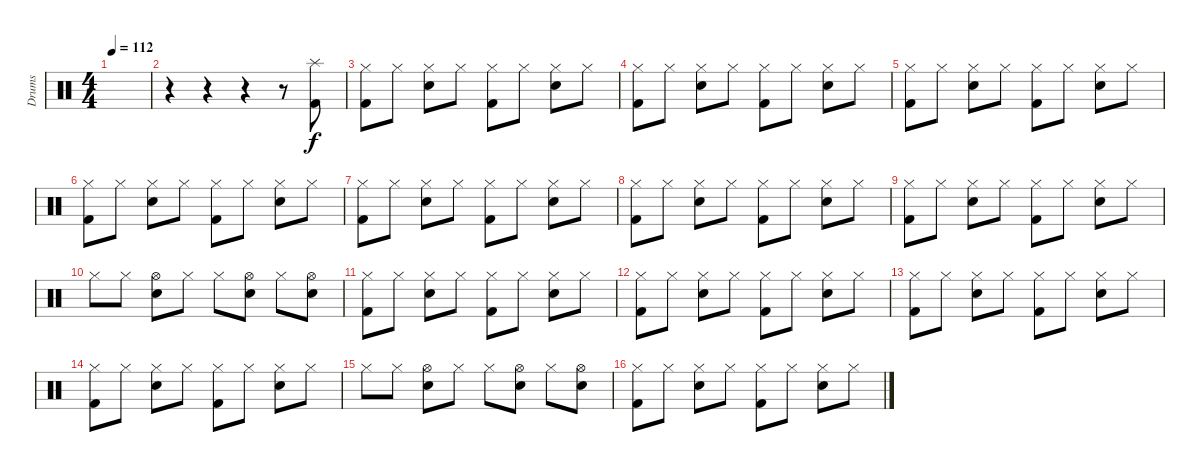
\track ("Drums" "Drums") {instrument percussion}
\staff {score}
\articulation defaults
\ts (4 4)
\tempo 112
\clef neutral
\ks c
|
r.4 r.4 r.4 r.8 ("Kick (hit) 2" "Splash (hit)").8 |
("Kick (hit) 2" "Hi-Hat (closed)").8 "Hi-Hat (closed)".8 ("Snare (hit) 2" "Hi-Hat (closed)").8 "Hi-Hat (closed)".8 ("Kick (hit) 2" "Hi-Hat (closed)").8 "Hi-Hat (closed)".8 ("Snare (hit) 2" "Hi-Hat (closed)").8 "Hi-Hat (closed)".8 |
("Kick (hit) 2" "Hi-Hat (closed)").8 "Hi-Hat (closed)".8 ("Snare (hit) 2" "Hi-Hat (closed)").8 "Hi-Hat (closed)".8 ("Kick (hit) 2" "Hi-Hat (closed)").8 "Hi-Hat (closed)".8 ("Snare (hit) 2" "Hi-Hat (closed)").8 "Hi-Hat (closed)".8 |
("Kick (hit) 2" "Hi-Hat (closed)").8 "Hi-Hat (closed)".8 ("Snare (hit) 2" "Hi-Hat (closed)").8 "Hi-Hat (closed)".8 ("Kick (hit) 2" "Hi-Hat (closed)").8 "Hi-Hat (closed)".8 ("Snare (hit) 2" "Hi-Hat (closed)").8 "Hi-Hat (closed)".8 |
("Kick (hit) 2" "Hi-Hat (closed)").8 "Hi-Hat (closed)".8 ("Snare (hit) 2" "Hi-Hat (closed)").8 "Hi-Hat (closed)".8 ("Kick (hit) 2" "Hi-Hat (closed)").8 "Hi-Hat (closed)".8 ("Snare (hit) 2" "Hi-Hat (closed)").8 "Hi-Hat (closed)".8 |
("Kick (hit) 2" "Hi-Hat (closed)").8 "Hi-Hat (closed)".8 ("Snare (hit) 2" "Hi-Hat (closed)").8 "Hi-Hat (closed)".8 ("Kick (hit) 2" "Hi-Hat (closed)").8 "Hi-Hat (closed)".8 ("Snare (hit) 2" "Hi-Hat (closed)").8 "Hi-Hat (closed)".8 |
("Kick (hit) 2" "Hi-Hat (closed)").8 "Hi-Hat (closed)".8 ("Snare (hit) 2" "Hi-Hat (closed)").8 "Hi-Hat (closed)".8 ("Kick (hit) 2" "Hi-Hat (closed)").8 "Hi-Hat (closed)".8 ("Snare (hit) 2" "Hi-Hat (closed)").8 "Hi-Hat (closed)".8 |
("Kick (hit) 2" "Hi-Hat (closed)").8 "Hi-Hat (closed)".8 ("Snare (hit) 2" "Hi-Hat (closed)").8 "Hi-Hat (closed)".8 ("Kick (hit) 2" "Hi-Hat (closed)").8 "Hi-Hat (closed)".8 ("Snare (hit) 2" "Hi-Hat (closed)").8 "Hi-Hat (closed)".8 |
"Hi-Hat (closed)".8 "Hi-Hat (closed)".8 ("Snare (hit) 2" "Hi-Hat (open)").8 "Hi-Hat (closed)".8 "Hi-Hat (closed)".8 ("Snare (hit) 2" "Hi-Hat (open)").8 "Hi-Hat (closed)".8 ("Snare (hit) 2" "Hi-Hat (open)").8 |
("Kick (hit) 2" "Hi-Hat (closed)").8 "Hi-Hat (closed)".8 ("Snare (hit) 2" "Hi-Hat (closed)").8 "Hi-Hat (closed)".8 ("Kick (hit) 2" "Hi-Hat (closed)").8 "Hi-Hat (closed)".8 ("Snare (hit) 2" "Hi-Hat (closed)").8 "Hi-Hat (closed)".8 |
("Kick (hit) 2" "Hi-Hat (closed)").8 "Hi-Hat (closed)".8 ("Snare (hit) 2" "Hi-Hat (closed)").8 "Hi-Hat (closed)".8 ("Kick (hit) 2" "Hi-Hat (closed)").8 "Hi-Hat (closed)".8 ("Snare (hit) 2" "Hi-Hat (closed)").8 "Hi-Hat (closed)".8 |
("Kick (hit) 2" "Hi-Hat (closed)").8 "Hi-Hat (closed)".8 ("Snare (hit) 2" "Hi-Hat (closed)").8 "Hi-Hat (closed)".8 ("Kick (hit) 2" "Hi-Hat (closed)").8 "Hi-Hat (closed)".8 ("Snare (hit) 2" "Hi-Hat (closed)").8 "Hi-Hat (closed)".8 |
("Kick (hit) 2" "Hi-Hat (closed)").8 "Hi-Hat (closed)".8 ("Snare (hit) 2" "Hi-Hat (closed)").8 "Hi-Hat (closed)".8 ("Kick (hit) 2" "Hi-Hat (closed)").8 "Hi-Hat (closed)".8 ("Snare (hit) 2" "Hi-Hat (closed)").8 "Hi-Hat (closed)".8 |
"Hi-Hat (closed)".8 "Hi-Hat (closed)".8 ("Snare (hit) 2" "Hi-Hat (open)").8 "Hi-Hat (closed)".8 "Hi-Hat (closed)".8 ("Snare (hit) 2" "Hi-Hat (open)").8 "Hi-Hat (closed)".8 ("Snare (hit) 2" "Hi-Hat (open)").8 |
("Kick (hit) 2" "Hi-Hat (closed)").8 "Hi-Hat (closed)".8 ("Snare (hit) 2" "Hi-Hat (closed)").8 "Hi-Hat (closed)".8 ("Kick (hit) 2" "Hi-Hat (closed)").8 "Hi-Hat (closed)".8 ("Snare (hit) 2" "Hi-Hat (closed)").8 "Hi-Hat (closed)".8
